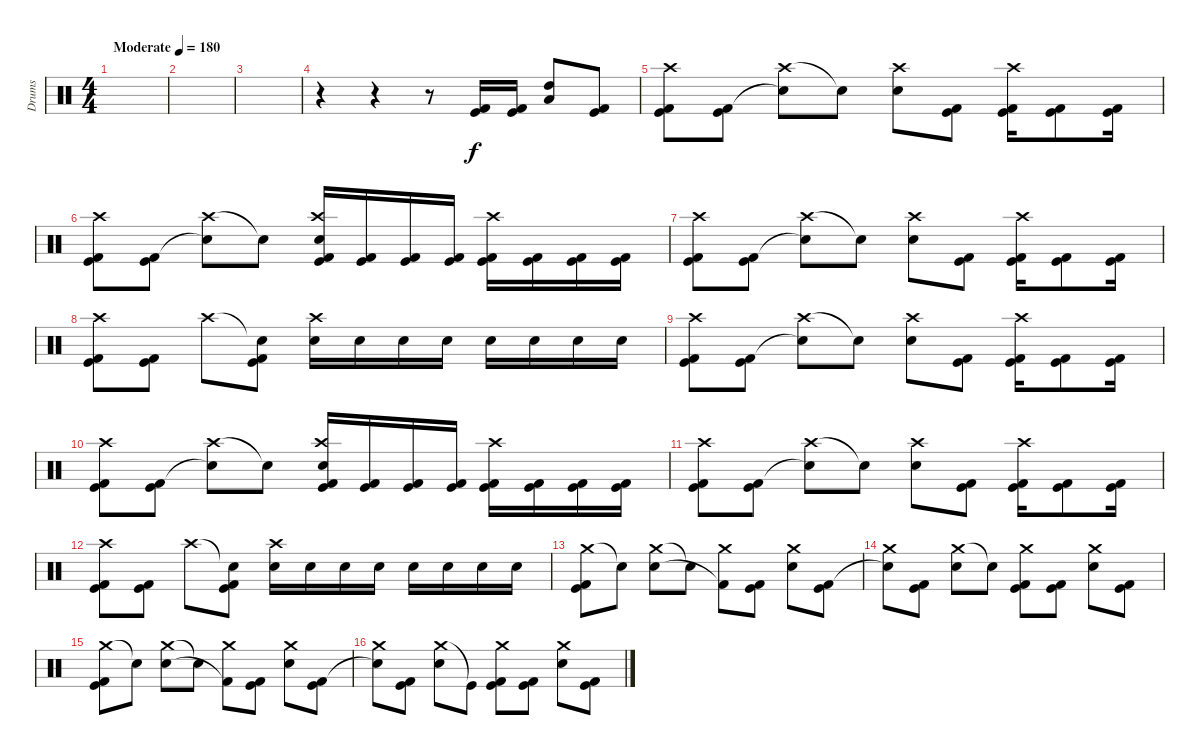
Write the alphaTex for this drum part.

\track ("Drums" "Drums") {instrument percussion}
\staff {score}
\articulation defaults
\ts (4 4)
\tempo (180 "Moderate")
\clef neutral
\ks c
|
|
|
r.4 r.4 r.8 ("Kick (hit) 2" "Kick (hit)").16 ("Kick (hit) 2" "Kick (hit)").16 ("High Tom (hit)" "Low Tom (hit)").8 ("Kick (hit)" "Kick (hit) 2").8 |
("Crash high (hit)" "Kick (hit)" "Kick (hit) 2").8 ("Kick (hit)" "Kick (hit) 2").8 ("Crash high (hit)" "Snare (hit)"{t}).8 "Snare (hit)"{t}.8 ("Crash high (hit)" "Electric Snare (hit)").8 ("Kick (hit)" "Kick (hit) 2").8 ("Crash high (hit)" "Kick (hit)" "Kick (hit) 2").16 ("Kick (hit)" "Kick (hit) 2").8 ("Kick (hit)" "Kick (hit) 2").16 |
("Crash high (hit)" "Kick (hit)" "Kick (hit) 2").8 ("Kick (hit)" "Kick (hit) 2").8 ("Crash high (hit)" "Snare (hit)"{t}).8 "Snare (hit)"{t}.8 ("Crash high (hit)" "Kick (hit)" "Electric Snare (hit)" "Kick (hit) 2").16 ("Kick (hit)" "Kick (hit) 2").16 ("Kick (hit)" "Kick (hit) 2").16 ("Kick (hit)" "Kick (hit) 2").16 ("Crash high (hit)" "Kick (hit)" "Kick (hit) 2").16 ("Kick (hit)" "Kick (hit) 2").16 ("Kick (hit)" "Kick (hit) 2").16 ("Kick (hit)" "Kick (hit) 2").16 |
("Crash high (hit)" "Kick (hit)" "Kick (hit) 2").8 ("Kick (hit)" "Kick (hit) 2").8 ("Crash high (hit)" "Snare (hit)"{t}).8 "Snare (hit)"{t}.8 ("Crash high (hit)" "Electric Snare (hit)").8 ("Kick (hit)" "Kick (hit) 2").8 ("Crash high (hit)" "Kick (hit)" "Kick (hit) 2").16 ("Kick (hit)" "Kick (hit) 2").8 ("Kick (hit)" "Kick (hit) 2").16 |
("Crash high (hit)" "Kick (hit)" "Kick (hit) 2").8 ("Kick (hit)" "Kick (hit) 2").8 "Crash high (hit)".8 ("Snare (hit)"{t} "Kick (hit)" "Kick (hit) 2").8 ("Crash high (hit)" "Electric Snare (hit)").16 "Electric Snare (hit)".16 "Electric Snare (hit)".16 "Electric Snare (hit)".16 "Electric Snare (hit)".16 "Electric Snare (hit)".16 "Electric Snare (hit)".16 "Electric Snare (hit)".16 |
("Crash high (hit)" "Kick (hit)" "Kick (hit) 2").8 ("Kick (hit)" "Kick (hit) 2").8 ("Crash high (hit)" "Snare (hit)"{t}).8 "Snare (hit)"{t}.8 ("Crash high (hit)" "Electric Snare (hit)").8 ("Kick (hit)" "Kick (hit) 2").8 ("Crash high (hit)" "Kick (hit)" "Kick (hit) 2").16 ("Kick (hit)" "Kick (hit) 2").8 ("Kick (hit)" "Kick (hit) 2").16 |
("Crash high (hit)" "Kick (hit)" "Kick (hit) 2").8 ("Kick (hit)" "Kick (hit) 2").8 ("Crash high (hit)" "Snare (hit)"{t}).8 "Snare (hit)"{t}.8 ("Crash high (hit)" "Kick (hit)" "Electric Snare (hit)" "Kick (hit) 2").16 ("Kick (hit)" "Kick (hit) 2").16 ("Kick (hit)" "Kick (hit) 2").16 ("Kick (hit)" "Kick (hit) 2").16 ("Crash high (hit)" "Kick (hit)" "Kick (hit) 2").16 ("Kick (hit)" "Kick (hit) 2").16 ("Kick (hit)" "Kick (hit) 2").16 ("Kick (hit)" "Kick (hit) 2").16 |
("Crash high (hit)" "Kick (hit)" "Kick (hit) 2").8 ("Kick (hit)" "Kick (hit) 2").8 ("Crash high (hit)" "Snare (hit)"{t}).8 "Snare (hit)"{t}.8 ("Crash high (hit)" "Electric Snare (hit)").8 ("Kick (hit)" "Kick (hit) 2").8 ("Crash high (hit)" "Kick (hit)" "Kick (hit) 2").16 ("Kick (hit)" "Kick (hit) 2").8 ("Kick (hit)" "Kick (hit) 2").16 |
("Crash high (hit)" "Kick (hit)" "Kick (hit) 2").8 ("Kick (hit)" "Kick (hit) 2").8 "Crash high (hit)".8 ("Snare (hit)"{t} "Kick (hit)" "Kick (hit) 2").8 ("Crash high (hit)" "Electric Snare (hit)").16 "Electric Snare (hit)".16 "Electric Snare (hit)".16 "Electric Snare (hit)".16 "Electric Snare (hit)".16 "Electric Snare (hit)".16 "Electric Snare (hit)".16 "Electric Snare (hit)".16 |
("Crash medium (hit)" "Kick (hit)" "Kick (hit) 2").8 "Snare (hit)"{t}.8 ("Crash medium (hit)" "Electric Snare (hit)").8 "Snare (hit)"{t}.8 ("Crash medium (hit)" "Kick (hit) 2"{t}).8 ("Kick (hit)" "Kick (hit) 2").8 ("Crash medium (hit)" "Electric Snare (hit)").8 ("Kick (hit)" "Kick (hit) 2").8 |
("Crash medium (hit)" "Snare (hit)"{t}).8 ("Kick (hit)" "Kick (hit) 2").8 ("Crash medium (hit)" "Electric Snare (hit)").8 "Snare (hit)"{t}.8 ("Crash medium (hit)" "Kick (hit)" "Kick (hit) 2").8 ("Kick (hit)" "Kick (hit) 2").8 ("Crash medium (hit)" "Electric Snare (hit)").8 ("Kick (hit)" "Kick (hit) 2").8 |
("Crash medium (hit)" "Kick (hit)" "Kick (hit) 2").8 "Snare (hit)"{t}.8 ("Crash medium (hit)" "Electric Snare (hit)").8 "Snare (hit)"{t}.8 ("Crash medium (hit)" "Kick (hit) 2"{t}).8 ("Kick (hit)" "Kick (hit) 2").8 ("Crash medium (hit)" "Electric Snare (hit)").8 ("Kick (hit)" "Kick (hit) 2").8 |
("Crash medium (hit)" "Snare (hit)"{t}).8 ("Kick (hit)" "Kick (hit) 2").8 ("Crash medium (hit)" "Electric Snare (hit)").8 "Kick (hit)"{t}.8 ("Crash medium (hit)" "Kick (hit)" "Kick (hit) 2").8 ("Kick (hit)" "Kick (hit) 2").8 ("Crash medium (hit)" "Electric Snare (hit)").8 ("Kick (hit)" "Kick (hit) 2").8
